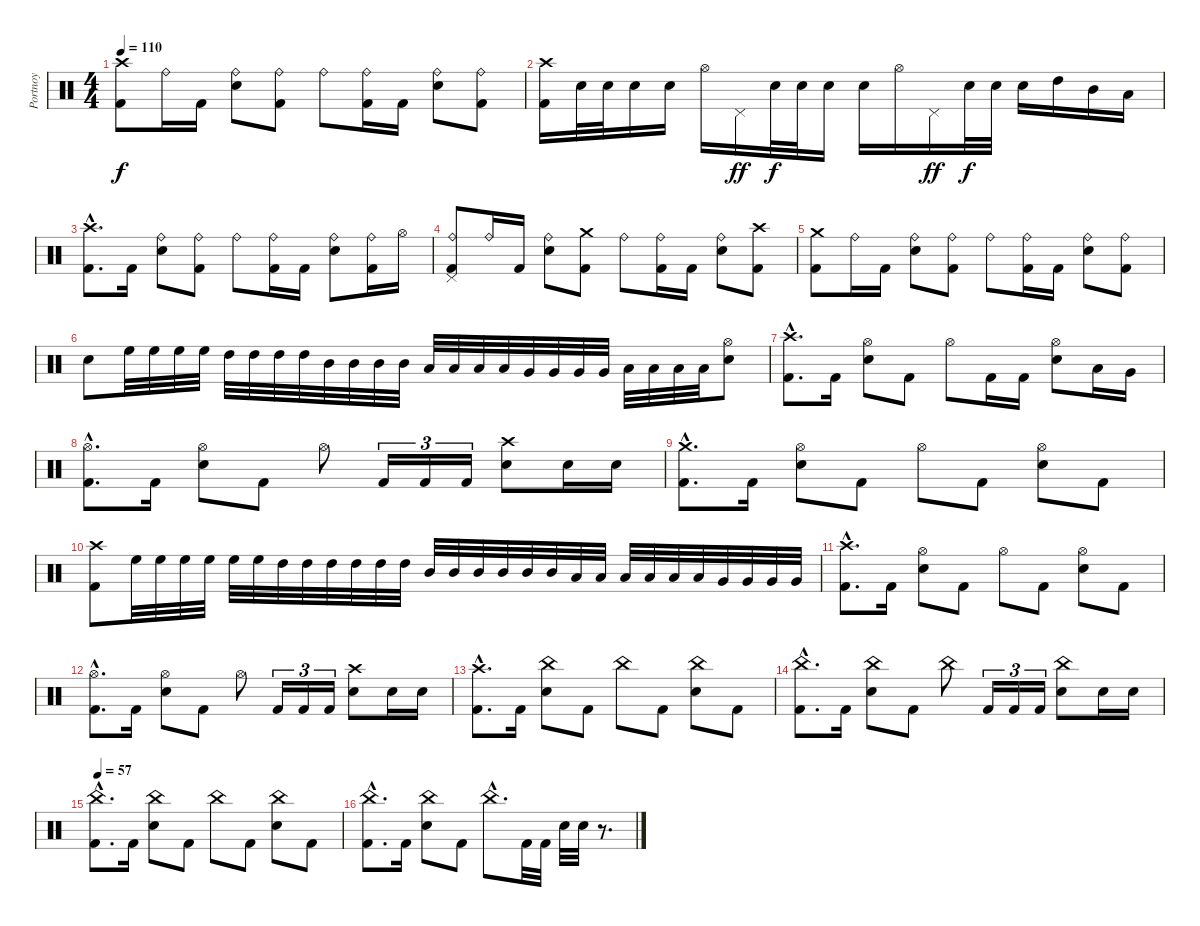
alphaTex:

\track ("Portnoy" "Portnoy") {instrument percussion}
\staff {score}
\articulation defaults
\ts (4 4)
\tempo 110
\clef neutral
\ks c
("Kick (hit) 2" "Crash high (hit)").8{dy f} "Ride (bell)".16 "Kick (hit) 2".16 ("Ride (bell)" "Snare (hit) 2").8 ("Kick (hit) 2" "Ride (bell)").8 "Ride (bell)".8 ("Kick (hit) 2" "Ride (bell)").16 "Kick (hit) 2".16 ("Ride (bell)" "Snare (hit) 2").8 ("Kick (hit) 2" "Ride (bell)").8 |
("Kick (hit) 2" "Crash high (hit)").16 "Snare (hit) 2".32 "Snare (hit) 2".32 "Snare (hit) 2".16 "Snare (hit) 2".16 "Hi-Hat (open)".16 "Pedal Hi-Hat (hit)".16{dy ff} "Snare (hit) 2".32{dy f} "Snare (hit) 2".32 "Snare (hit) 2".16 "Snare (hit) 2".16 "Hi-Hat (open)".16 "Pedal Hi-Hat (hit)".16{dy ff} "Snare (hit) 2".32{dy f} "Snare (hit) 2".32 "Snare (hit) 2".16 "High Tom (hit)".16 "Mid Tom (hit)".16 "Low Tom (hit)".16 |
("Kick (hit) 2"{hac} "Crash high (hit)"{hac}).8{d} "Kick (hit) 2".16 ("Ride (bell)" "Snare (hit) 2").8 ("Kick (hit) 2" "Ride (bell)").8 "Ride (bell)".8 ("Kick (hit) 2" "Ride (bell)").16 "Kick (hit) 2".16 ("Ride (bell)" "Snare (hit) 2").8 ("Kick (hit) 2" "Ride (bell)").16 "Hi-Hat (open)".16 |
("Kick (hit) 2" "Pedal Hi-Hat (hit)" "Ride (bell)").8 "Ride (bell)".16 "Kick (hit) 2".16 ("Ride (bell)" "Snare (hit) 2").8 ("Kick (hit) 2" "Crash medium (hit)").8 "Ride (bell)".8 ("Kick (hit) 2" "Ride (bell)").16 "Kick (hit) 2".16 ("Ride (bell)" "Snare (hit) 2").8 ("Kick (hit) 2" "Crash high (hit)").8 |
("Kick (hit) 2" "Crash medium (hit)").8 "Ride (bell)".16 "Kick (hit) 2".16 ("Ride (bell)" "Snare (hit) 2").8 ("Kick (hit) 2" "Ride (bell)").8 "Ride (bell)".8 ("Kick (hit) 2" "Ride (bell)").16 "Kick (hit) 2".16 ("Ride (bell)" "Snare (hit) 2").8 ("Kick (hit) 2" "Ride (bell)").8 |
"Snare (hit) 2".8 "High Floor Tom (hit)".32 "High Floor Tom (hit)".32 "High Floor Tom (hit)".32 "High Floor Tom (hit)".32 "High Tom (hit)".32 "High Tom (hit)".32 "High Tom (hit)".32 "High Tom (hit)".32 "Mid Tom (hit)".32 "Mid Tom (hit)".32 "Mid Tom (hit)".32 "Mid Tom (hit)".32 "Low Tom (hit)".32 "Low Tom (hit)".32 "Low Tom (hit)".32 "Low Tom (hit)".32 "Very Low Tom (hit)".32 "Very Low Tom (hit)".32 "Very Low Tom (hit)".32 "Very Low Tom (hit)".32 "Low Floor Tom (hit)".32 "Low Floor Tom (hit)".32 "Low Floor Tom (hit)".32 "Low Floor Tom (hit)".32 ("Hi-Hat (open)" "Snare (hit) 2").8 |
("Kick (hit) 2"{hac} "Crash high (hit)"{hac}).8{d} "Kick (hit) 2".16 ("Hi-Hat (open)" "Snare (hit) 2").8 "Kick (hit) 2".8 "Hi-Hat (open)".8 "Kick (hit) 2".16 "Kick (hit) 2".16 ("Hi-Hat (open)" "Snare (hit) 2").8 "Low Tom (hit)".16 "Very Low Tom (hit)".16 |
("Kick (hit) 2"{hac} "Hi-Hat (open)"{hac}).8{d} "Kick (hit) 2".16 ("Hi-Hat (open)" "Snare (hit) 2").8 "Kick (hit) 2".8 "Hi-Hat (open)".8 "Kick (hit) 2".16{tu (3 2)} "Kick (hit) 2".16{tu (3 2)} "Kick (hit) 2".16{tu (3 2)} ("Crash high (hit)" "Snare (hit) 2").8 "Snare (hit) 2".16 "Snare (hit) 2".16 |
("Kick (hit) 2"{hac} "Crash medium (hit)"{hac}).8{d} "Kick (hit) 2".16 ("Hi-Hat (open)" "Snare (hit) 2").8 "Kick (hit) 2".8 "Hi-Hat (open)".8 "Kick (hit) 2".8 ("Hi-Hat (open)" "Snare (hit) 2").8 "Kick (hit) 2".8 |
("Kick (hit) 2" "Crash high (hit)").8 "High Floor Tom (hit)".32 "High Floor Tom (hit)".32 "High Floor Tom (hit)".32 "High Floor Tom (hit)".32 "High Floor Tom (hit)".32 "High Floor Tom (hit)".32 "High Tom (hit)".32 "High Tom (hit)".32 "High Tom (hit)".32 "High Tom (hit)".32 "High Tom (hit)".32 "High Tom (hit)".32 "Mid Tom (hit)".32 "Mid Tom (hit)".32 "Mid Tom (hit)".32 "Mid Tom (hit)".32 "Mid Tom (hit)".32 "Mid Tom (hit)".32 "Low Tom (hit)".32 "Low Tom (hit)".32 "Low Tom (hit)".32 "Low Tom (hit)".32 "Low Tom (hit)".32 "Low Tom (hit)".32 "Very Low Tom (hit)".32 "Very Low Tom (hit)".32 "Very Low Tom (hit)".32 "Very Low Tom (hit)".32 |
("Kick (hit) 2"{hac} "Crash high (hit)"{hac}).8{d} "Kick (hit) 2".16 ("Hi-Hat (open)" "Snare (hit) 2").8 "Kick (hit) 2".8 "Hi-Hat (open)".8 "Kick (hit) 2".8 ("Hi-Hat (open)" "Snare (hit) 2").8 "Kick (hit) 2".8 |
("Kick (hit) 2"{hac} "Hi-Hat (open)"{hac}).8{d} "Kick (hit) 2".16 ("Hi-Hat (open)" "Snare (hit) 2").8 "Kick (hit) 2".8 "Hi-Hat (open)".8 "Kick (hit) 2".16{tu (3 2)} "Kick (hit) 2".16{tu (3 2)} "Kick (hit) 2".16{tu (3 2)} ("Crash high (hit)" "Snare (hit) 2").8 "Snare (hit) 2".16 "Snare (hit) 2".16 |
("Kick (hit) 2"{hac} "Crash high (hit)"{hac}).8{d} "Kick (hit) 2".16 ("China (hit)" "Snare (hit) 2").8 "Kick (hit) 2".8 "China (hit)".8 "Kick (hit) 2".8 ("China (hit)" "Snare (hit) 2").8 "Kick (hit) 2".8 |
("Kick (hit) 2"{hac} "China (hit)"{hac}).8{d} "Kick (hit) 2".16 ("China (hit)" "Snare (hit) 2").8 "Kick (hit) 2".8 "China (hit)".8 "Kick (hit) 2".16{tu (3 2)} "Kick (hit) 2".16{tu (3 2)} "Kick (hit) 2".16{tu (3 2)} ("China (hit)" "Snare (hit) 2").8 "Snare (hit) 2".16 "Snare (hit) 2".16 |
\tempo 57
("Kick (hit) 2"{hac} "China (hit)"{hac}).8{d} "Kick (hit) 2".16 ("China (hit)" "Snare (hit) 2").8 "Kick (hit) 2".8 "China (hit)".8 "Kick (hit) 2".8 ("China (hit)" "Snare (hit) 2").8 "Kick (hit) 2".8 |
("Kick (hit) 2"{hac} "China (hit)"{hac}).8{d} "Kick (hit) 2".16 ("China (hit)" "Snare (hit) 2").8 "Kick (hit) 2".8 "China (hit)"{hac}.8{d} "Kick (hit) 2".32 "Kick (hit) 2".32 "Snare (hit) 2".32 "Snare (hit) 2".32 r.8{d}
